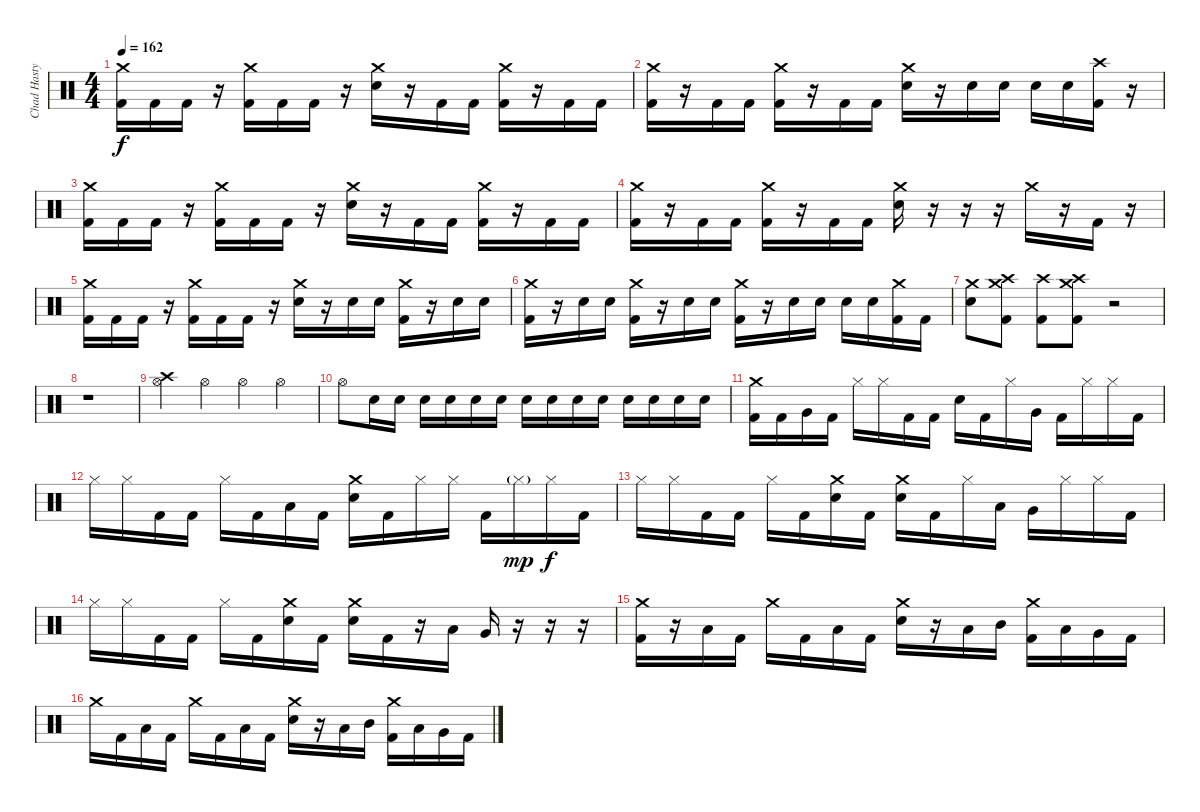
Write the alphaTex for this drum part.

\track ("Chad Hasty" "Chad Hasty") {instrument percussion}
\staff {score}
\articulation defaults
\ts (4 4)
\tempo 162
\clef neutral
\ks c
("Crash medium (hit)" "Kick (hit) 2").16{dy f} "Kick (hit) 2".16 "Kick (hit) 2".16 r.16 ("Crash medium (hit)" "Kick (hit) 2").16 "Kick (hit) 2".16 "Kick (hit) 2".16 r.16 ("Crash medium (hit)" "Snare (hit) 2").16 r.16 "Kick (hit) 2".16 "Kick (hit) 2".16 ("Crash medium (hit)" "Kick (hit) 2").16 r.16 "Kick (hit) 2".16 "Kick (hit) 2".16 |
("Crash medium (hit)" "Kick (hit) 2").16 r.16 "Kick (hit) 2".16 "Kick (hit) 2".16 ("Crash medium (hit)" "Kick (hit) 2").16 r.16 "Kick (hit) 2".16 "Kick (hit) 2".16 ("Crash medium (hit)" "Snare (hit) 2").16 r.16 "Snare (hit) 2".16 "Snare (hit) 2".16 "Snare (hit) 2".16 "Snare (hit) 2".16 ("Crash high (hit)" "Kick (hit) 2").16 r.16 |
("Crash medium (hit)" "Kick (hit) 2").16 "Kick (hit) 2".16 "Kick (hit) 2".16 r.16 ("Crash medium (hit)" "Kick (hit) 2").16 "Kick (hit) 2".16 "Kick (hit) 2".16 r.16 ("Crash medium (hit)" "Snare (hit) 2").16 r.16 "Kick (hit) 2".16 "Kick (hit) 2".16 ("Crash medium (hit)" "Kick (hit) 2").16 r.16 "Kick (hit) 2".16 "Kick (hit) 2".16 |
("Crash medium (hit)" "Kick (hit) 2").16 r.16 "Kick (hit) 2".16 "Kick (hit) 2".16 ("Crash medium (hit)" "Kick (hit) 2").16 r.16 "Kick (hit) 2".16 "Kick (hit) 2".16 ("Crash medium (hit)" "Snare (hit) 2").16 r.16 r.16 r.16 "Crash medium (hit)".16 r.16 "Kick (hit) 2".16 r.16 |
("Crash medium (hit)" "Kick (hit) 2").16 "Kick (hit) 2".16 "Kick (hit) 2".16 r.16 ("Crash medium (hit)" "Kick (hit) 2").16 "Kick (hit) 2".16 "Kick (hit) 2".16 r.16 ("Crash medium (hit)" "Snare (hit) 2").16 r.16 "Snare (hit) 2".16 "Snare (hit) 2".16 ("Crash medium (hit)" "Kick (hit) 2").16 r.16 "Snare (hit) 2".16 "Snare (hit) 2".16 |
("Crash medium (hit)" "Kick (hit) 2").16 r.16 "Snare (hit) 2".16 "Snare (hit) 2".16 ("Crash medium (hit)" "Kick (hit) 2").16 r.16 "Snare (hit) 2".16 "Snare (hit) 2".16 ("Crash medium (hit)" "Kick (hit) 2").16 r.16 "Snare (hit) 2".16 "Snare (hit) 2".16 "Snare (hit) 2".16 "Snare (hit) 2".16 ("Crash medium (hit)" "Kick (hit) 2").16 "Kick (hit) 2".16 |
("Crash medium (hit)" "Snare (hit) 2").8 ("Crash medium (hit)" "Crash high (hit)" "Kick (hit) 2").8 ("Crash high (hit)" "Kick (hit) 2").8 ("Crash medium (hit)" "Crash high (hit)" "Kick (hit) 2").8 r.2 |
r.1 |
("Crash high (hit)" "Hi-Hat (open)").4 "Hi-Hat (open)".4 "Hi-Hat (open)".4 "Hi-Hat (open)".4 |
"Hi-Hat (open)".8 "Snare (hit) 2".16 "Snare (hit) 2".16 "Snare (hit) 2".16 "Snare (hit) 2".16 "Snare (hit) 2".16 "Snare (hit) 2".16 "Snare (hit) 2".16 "Snare (hit) 2".16 "Snare (hit) 2".16 "Snare (hit) 2".16 "Snare (hit) 2".16 "Snare (hit) 2".16 "Snare (hit) 2".16 "Snare (hit) 2".16 |
("Crash medium (hit)" "Kick (hit) 2").16 "Kick (hit) 2".16 "Very Low Tom (hit)".16 "Kick (hit) 2".16 "Hi-Hat (closed)".16 "Hi-Hat (closed)".16 "Kick (hit) 2".16 "Kick (hit) 2".16 "Snare (hit) 2".16 "Kick (hit) 2".16 "Hi-Hat (closed)".16 "Very Low Tom (hit)".16 "Kick (hit) 2".16 "Hi-Hat (closed)".16 "Hi-Hat (closed)".16 "Kick (hit) 2".16 |
"Hi-Hat (closed)".16 "Hi-Hat (closed)".16 "Kick (hit) 2".16 "Kick (hit) 2".16 "Hi-Hat (closed)".16 "Kick (hit) 2".16 "Low Tom (hit)".16 "Kick (hit) 2".16 ("Crash medium (hit)" "Snare (hit) 2").16 "Kick (hit) 2".16 "Hi-Hat (closed)".16 "Hi-Hat (closed)".16 "Kick (hit) 2".16 "Hi-Hat (closed)"{g}.16{dy mp} "Hi-Hat (closed)".16{dy f} "Kick (hit) 2".16 |
"Hi-Hat (closed)".16 "Hi-Hat (closed)".16 "Kick (hit) 2".16 "Kick (hit) 2".16 "Hi-Hat (closed)".16 "Kick (hit) 2".16 ("Crash medium (hit)" "Snare (hit) 2").16 "Kick (hit) 2".16 ("Crash medium (hit)" "Snare (hit) 2").16 "Kick (hit) 2".16 "Hi-Hat (closed)".16 "Low Tom (hit)".16 "Very Low Tom (hit)".16 "Hi-Hat (closed)".16 "Hi-Hat (closed)".16 "Kick (hit) 2".16 |
"Hi-Hat (closed)".16 "Hi-Hat (closed)".16 "Kick (hit) 2".16 "Kick (hit) 2".16 "Hi-Hat (closed)".16 "Kick (hit) 2".16 ("Crash medium (hit)" "Snare (hit) 2").16 "Kick (hit) 2".16 ("Crash medium (hit)" "Snare (hit) 2").16 "Kick (hit) 2".16 r.16 "Low Tom (hit)".16 "Very Low Tom (hit)".16 r.16 r.16 r.16 |
("Crash medium (hit)" "Kick (hit) 2").16 r.16 "Low Tom (hit)".16 "Kick (hit) 2".16 "Crash medium (hit)".16 "Kick (hit) 2".16 "Low Tom (hit)".16 "Kick (hit) 2".16 ("Crash medium (hit)" "Snare (hit) 2").16 r.16 "Low Tom (hit)".16 "Mid Tom (hit)".16 ("Crash medium (hit)" "Kick (hit) 2").16 "Low Tom (hit)".16 "Very Low Tom (hit)".16 "Kick (hit) 2".16 |
"Crash medium (hit)".16 "Kick (hit) 2".16 "Low Tom (hit)".16 "Kick (hit) 2".16 "Crash medium (hit)".16 "Kick (hit) 2".16 "Low Tom (hit)".16 "Kick (hit) 2".16 ("Crash medium (hit)" "Snare (hit) 2").16 r.16 "Low Tom (hit)".16 "Mid Tom (hit)".16 ("Crash medium (hit)" "Kick (hit) 2").16 "Low Tom (hit)".16 "Very Low Tom (hit)".16 "Kick (hit) 2".16
